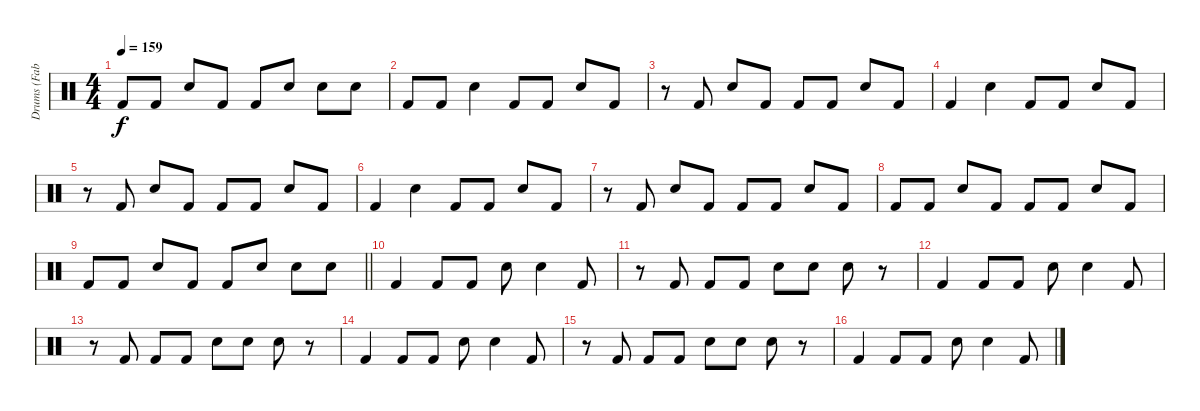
\track ("Drums (Fabio)" "Drums (Fab") {instrument percussion}
\staff {score}
\articulation defaults
\ts (4 4)
\tempo 159
\clef neutral
\ks c "Kick (hit) 2".8{dy f} "Kick (hit) 2".8 "Snare (hit) 2".8 "Kick (hit) 2".8 "Kick (hit) 2".8 "Snare (hit) 2"{tr (38 16)}.8 "Snare (hit) 2"{tr (38 16)}.8 "Snare (hit) 2"{tr (38 16)}.8
|
"Kick (hit) 2".8 "Kick (hit) 2".8 "Snare (hit) 2".4 "Kick (hit) 2".8 "Kick (hit) 2".8 "Snare (hit) 2".8 "Kick (hit) 2".8 |
r.8 "Kick (hit) 2".8 "Snare (hit) 2".8 "Kick (hit) 2".8 "Kick (hit) 2".8 "Kick (hit) 2".8 "Snare (hit) 2".8 "Kick (hit) 2".8 |
"Kick (hit) 2".4 "Snare (hit) 2".4 "Kick (hit) 2".8 "Kick (hit) 2".8 "Snare (hit) 2".8 "Kick (hit) 2".8 |
r.8 "Kick (hit) 2".8 "Snare (hit) 2".8 "Kick (hit) 2".8 "Kick (hit) 2".8 "Kick (hit) 2".8 "Snare (hit) 2".8 "Kick (hit) 2".8 |
"Kick (hit) 2".4 "Snare (hit) 2".4 "Kick (hit) 2".8 "Kick (hit) 2".8 "Snare (hit) 2".8 "Kick (hit) 2".8 |
r.8 "Kick (hit) 2".8 "Snare (hit) 2".8 "Kick (hit) 2".8 "Kick (hit) 2".8 "Kick (hit) 2".8 "Snare (hit) 2".8 "Kick (hit) 2".8 |
"Kick (hit) 2".8 "Kick (hit) 2".8 "Snare (hit) 2".8 "Kick (hit) 2".8 "Kick (hit) 2".8 "Kick (hit) 2".8 "Snare (hit) 2".8 "Kick (hit) 2".8 |
\barLineRight lightlight "Kick (hit) 2".8 "Kick (hit) 2".8 "Snare (hit) 2".8 "Kick (hit) 2".8 "Kick (hit) 2".8 "Snare (hit) 2"{tr (38 16)}.8 "Snare (hit) 2"{tr (38 16)}.8 "Snare (hit) 2"{tr (38 16)}.8
|
"Kick (hit) 2".4 "Kick (hit) 2".8 "Kick (hit) 2".8 "Snare (hit) 2".8 "Snare (hit) 2".4 "Kick (hit) 2".8 |
r.8 "Kick (hit) 2".8 "Kick (hit) 2".8 "Kick (hit) 2".8 "Snare (hit) 2".8 "Snare (hit) 2".8 "Snare (hit) 2".8 r.8 |
"Kick (hit) 2".4 "Kick (hit) 2".8 "Kick (hit) 2".8 "Snare (hit) 2".8 "Snare (hit) 2".4 "Kick (hit) 2".8 |
r.8 "Kick (hit) 2".8 "Kick (hit) 2".8 "Kick (hit) 2".8 "Snare (hit) 2".8 "Snare (hit) 2".8 "Snare (hit) 2".8 r.8 |
"Kick (hit) 2".4 "Kick (hit) 2".8 "Kick (hit) 2".8 "Snare (hit) 2".8 "Snare (hit) 2".4 "Kick (hit) 2".8 |
r.8 "Kick (hit) 2".8 "Kick (hit) 2".8 "Kick (hit) 2".8 "Snare (hit) 2".8 "Snare (hit) 2".8 "Snare (hit) 2".8 r.8 |
"Kick (hit) 2".4 "Kick (hit) 2".8 "Kick (hit) 2".8 "Snare (hit) 2".8 "Snare (hit) 2".4 "Kick (hit) 2".8
